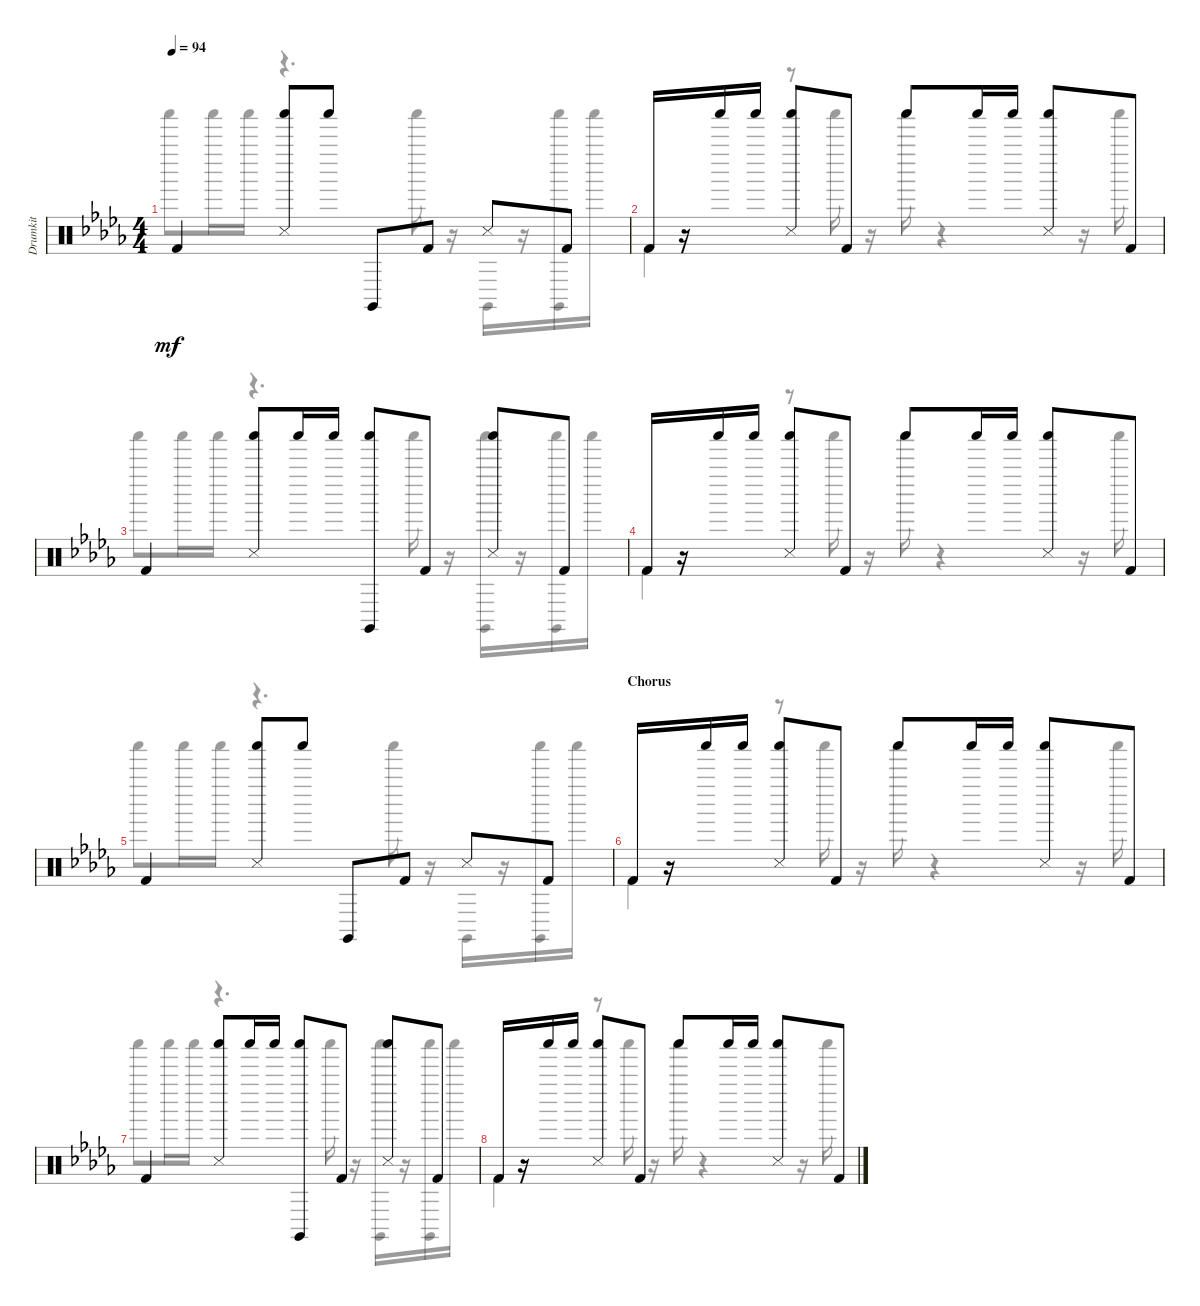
\track ("Drumkit" "Drumkit") {instrument percussion}
\staff {score}
\articulation defaults
\voice
\ts (4 4)
\tempo 94
\clef neutral
\ks bbminor "Kick (hit) 2".4{dy mf}
("Snare (side stick) 3" "Shaker (hit)").8 "Shaker (hit)".8 "Claves (hit)".8 "Kick (hit) 2".8 "Snare (side stick) 3".8 "Kick (hit) 2".8 |
"Kick (hit) 2".16 r.16 "Shaker (hit)".16 "Shaker (hit)".16 ("Shaker (hit)" "Snare (side stick) 3").8 "Kick (hit) 2".8 "Shaker (hit)".8 "Shaker (hit)".16 "Shaker (hit)".16 ("Shaker (hit)" "Snare (side stick) 3").8 "Kick (hit) 2".8 |
"Kick (hit) 2".4 ("Shaker (hit)" "Snare (side stick) 3").8 "Shaker (hit)".16 "Shaker (hit)".16 ("Shaker (hit)" "Claves (hit)").8 "Kick (hit) 2".8 ("Shaker (hit)" "Snare (side stick) 3").8 "Kick (hit) 2".8 |
"Kick (hit) 2".16 r.16 "Shaker (hit)".16 "Shaker (hit)".16 ("Snare (side stick) 3" "Shaker (hit)").8 "Kick (hit) 2".8 "Shaker (hit)".8 "Shaker (hit)".16 "Shaker (hit)".16 ("Shaker (hit)" "Snare (side stick) 3").8 "Kick (hit) 2".8 |
"Kick (hit) 2".4 ("Shaker (hit)" "Snare (side stick) 3").8 "Shaker (hit)".8 "Claves (hit)".8 "Kick (hit) 2".8 "Snare (side stick) 3".8 "Kick (hit) 2".8 |
\section ("" "Chorus")
"Kick (hit) 2".16 r.16 "Shaker (hit)".16 "Shaker (hit)".16 ("Snare (side stick) 3" "Shaker (hit)").8 "Kick (hit) 2".8 "Shaker (hit)".8 "Shaker (hit)".16 "Shaker (hit)".16 ("Snare (side stick) 3" "Shaker (hit)").8 "Kick (hit) 2".8 |
"Kick (hit) 2".4 ("Shaker (hit)" "Snare (side stick) 3").8 "Shaker (hit)".16 "Shaker (hit)".16 ("Shaker (hit)" "Claves (hit)").8 "Kick (hit) 2".8 ("Shaker (hit)" "Snare (side stick) 3").8 "Kick (hit) 2".8 |
"Kick (hit) 2".16 r.16 "Shaker (hit)".16 "Shaker (hit)".16 ("Snare (side stick) 3" "Shaker (hit)").8 "Kick (hit) 2".8 "Shaker (hit)".8 "Shaker (hit)".16 "Shaker (hit)".16 ("Shaker (hit)" "Snare (side stick) 3").8 "Kick (hit) 2".8
\voice
\clef neutral
\ottava regular
\simile none
\ks bbminor "Shaker (hit)".8{dy mf} "Shaker (hit)".16 "Shaker (hit)".16
r.4{d} "Shaker (hit)".16 r.16 "Claves (hit)".16 r.16 ("Shaker (hit)" "Claves (hit)").16 "Shaker (hit)".16 |
"Kick (hit) 2".4 r.8 "Shaker (hit)".16 r.16 "Shaker (hit)".16 r.4 r.16 "Shaker (hit)".16 |
"Shaker (hit)".8 "Shaker (hit)".16 "Shaker (hit)".16 r.4{d} "Shaker (hit)".16 r.16 ("Shaker (hit)" "Claves (hit)").16 r.16 ("Claves (hit)" "Shaker (hit)").16 "Shaker (hit)".16 |
"Kick (hit) 2".4 r.8 "Shaker (hit)".16 r.16 "Shaker (hit)".16 r.4 r.16 "Shaker (hit)".16 |
"Shaker (hit)".8 "Shaker (hit)".16 "Shaker (hit)".16 r.4{d} "Shaker (hit)".16 r.16 "Claves (hit)".16 r.16 ("Claves (hit)" "Shaker (hit)").16 "Shaker (hit)".16 |
"Kick (hit) 2".4 r.8 "Shaker (hit)".16 r.16 "Shaker (hit)".16 r.4 r.16 "Shaker (hit)".16 |
"Shaker (hit)".8 "Shaker (hit)".16 "Shaker (hit)".16 r.4{d} "Shaker (hit)".16 r.16 ("Shaker (hit)" "Claves (hit)").16 r.16 ("Claves (hit)" "Shaker (hit)").16 "Shaker (hit)".16 |
"Kick (hit) 2".4 r.8 "Shaker (hit)".16 r.16 "Shaker (hit)".16 r.4 r.16 "Shaker (hit)".16
